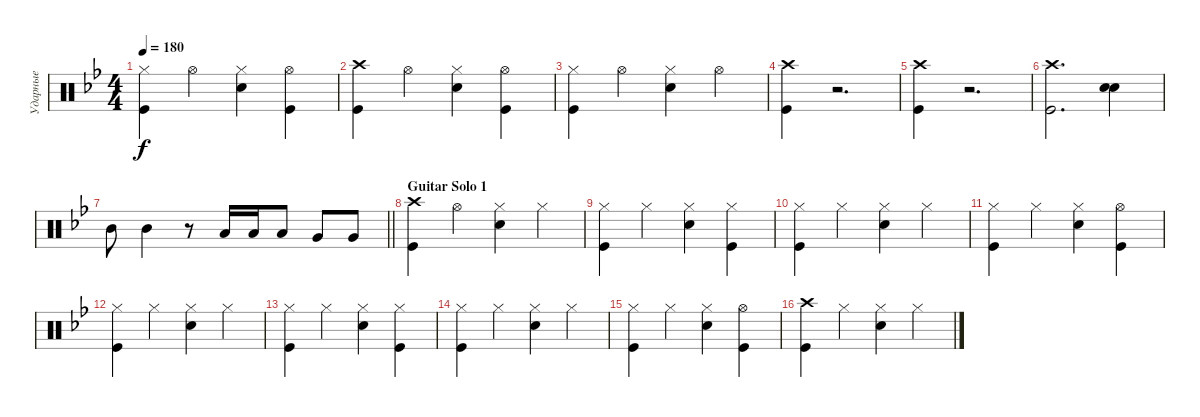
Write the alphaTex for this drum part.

\track ("Ударные" "Ударные") {instrument percussion}
\staff {score}
\articulation defaults
\ts (4 4)
\tempo 180
\clef neutral
\ks gminor
("Hi-Hat (closed)" "Kick (hit)").4{dy f} "Hi-Hat (open)".4 ("Hi-Hat (closed)" "Snare (hit) 2").4 ("Hi-Hat (open)" "Kick (hit)").4 |
("Crash high (hit)" "Kick (hit)").4 "Hi-Hat (open)".4 ("Hi-Hat (closed)" "Snare (hit) 2").4 ("Hi-Hat (open)" "Kick (hit)").4 |
("Hi-Hat (closed)" "Kick (hit)").4 "Hi-Hat (open)".4 ("Hi-Hat (closed)" "Snare (hit) 2").4 "Hi-Hat (open)".4 |
("Kick (hit)" "Crash high (hit)").4 r.2{d} |
("Kick (hit)" "Crash high (hit)").4 r.2{d} |
("Kick (hit)" "Crash high (hit)").2{d} ("Snare (hit) 2" "Snare (hit) 2").4{bd 240} |
\barLineRight lightlight "Mid Tom (hit)".8 "Mid Tom (hit)".4
r.8 "Low Tom (hit)".16 "Low Tom (hit)".16 "Low Tom (hit)".8 "Very Low Tom (hit)".8 "Very Low Tom (hit)".8 |
\section ("" "Guitar Solo 1")
("Kick (hit)" "Crash high (hit)").4 "Hi-Hat (open)".4 ("Hi-Hat (closed)" "Snare (hit) 2").4 "Hi-Hat (closed)".4 |
("Hi-Hat (closed)" "Kick (hit)").4 "Hi-Hat (closed)".4 ("Snare (hit) 2" "Hi-Hat (closed)").4 ("Hi-Hat (closed)" "Kick (hit)").4 |
("Hi-Hat (closed)" "Kick (hit)").4 "Hi-Hat (closed)".4 ("Snare (hit) 2" "Hi-Hat (closed)").4 "Hi-Hat (closed)".4 |
("Hi-Hat (closed)" "Kick (hit)").4 "Hi-Hat (closed)".4 ("Snare (hit) 2" "Hi-Hat (closed)").4 ("Hi-Hat (open)" "Kick (hit)").4 |
("Hi-Hat (closed)" "Kick (hit)").4 "Hi-Hat (closed)".4 ("Snare (hit) 2" "Hi-Hat (closed)").4 "Hi-Hat (closed)".4 |
("Hi-Hat (closed)" "Kick (hit)").4 "Hi-Hat (closed)".4 ("Snare (hit) 2" "Hi-Hat (closed)").4 ("Hi-Hat (closed)" "Kick (hit)").4 |
("Hi-Hat (closed)" "Kick (hit)").4 "Hi-Hat (closed)".4 ("Snare (hit) 2" "Hi-Hat (closed)").4 "Hi-Hat (closed)".4 |
("Hi-Hat (closed)" "Kick (hit)").4 "Hi-Hat (closed)".4 ("Snare (hit) 2" "Hi-Hat (closed)").4 ("Hi-Hat (open)" "Kick (hit)").4 |
("Crash high (hit)" "Kick (hit)").4 "Hi-Hat (closed)".4 ("Snare (hit) 2" "Hi-Hat (closed)").4 "Hi-Hat (closed)".4
